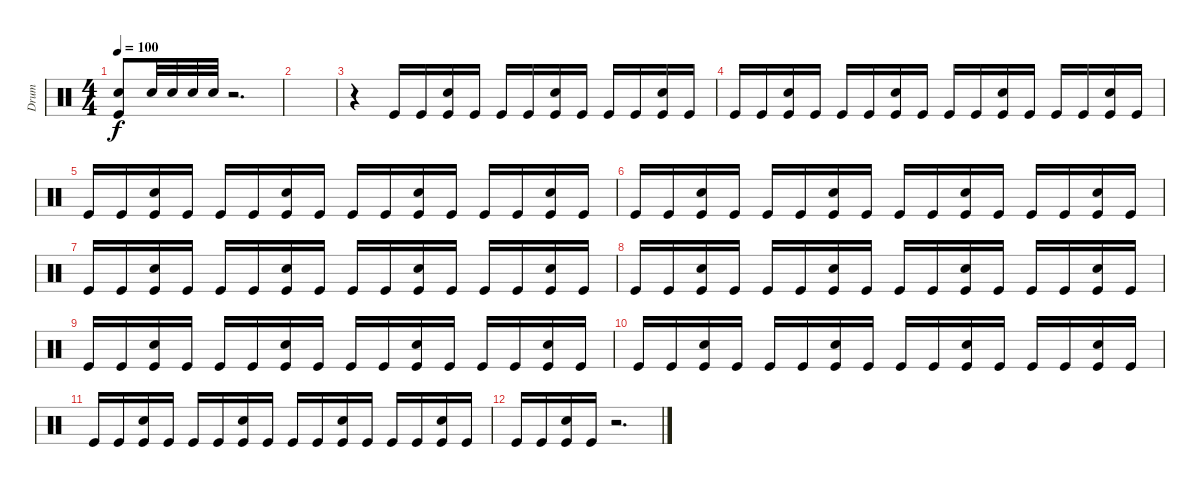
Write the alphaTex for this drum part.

\track ("Drum" "Drum") {instrument percussion}
\staff {score}
\articulation defaults
\ts (4 4)
\tempo 100
\clef neutral
\ks c
("Snare (hit) 2" "Kick (hit)").8{dy f} "Snare (hit) 2".32 "Snare (hit) 2".32 "Snare (hit) 2".32 "Snare (hit) 2".32 r.2{d} |
|
r.4 "Kick (hit)".16 "Kick (hit)".16 ("Snare (hit) 2" "Kick (hit)").16 "Kick (hit)".16 "Kick (hit)".16 "Kick (hit)".16 ("Snare (hit) 2" "Kick (hit)").16 "Kick (hit)".16 "Kick (hit)".16 "Kick (hit)".16 ("Snare (hit) 2" "Kick (hit)").16 "Kick (hit)".16 |
"Kick (hit)".16 "Kick (hit)".16 ("Snare (hit) 2" "Kick (hit)").16 "Kick (hit)".16 "Kick (hit)".16 "Kick (hit)".16 ("Snare (hit) 2" "Kick (hit)").16 "Kick (hit)".16 "Kick (hit)".16 "Kick (hit)".16 ("Snare (hit) 2" "Kick (hit)").16 "Kick (hit)".16 "Kick (hit)".16 "Kick (hit)".16 ("Snare (hit) 2" "Kick (hit)").16 "Kick (hit)".16 |
"Kick (hit)".16 "Kick (hit)".16 ("Snare (hit) 2" "Kick (hit)").16 "Kick (hit)".16 "Kick (hit)".16 "Kick (hit)".16 ("Snare (hit) 2" "Kick (hit)").16 "Kick (hit)".16 "Kick (hit)".16 "Kick (hit)".16 ("Snare (hit) 2" "Kick (hit)").16 "Kick (hit)".16 "Kick (hit)".16 "Kick (hit)".16 ("Snare (hit) 2" "Kick (hit)").16 "Kick (hit)".16 |
"Kick (hit)".16 "Kick (hit)".16 ("Snare (hit) 2" "Kick (hit)").16 "Kick (hit)".16 "Kick (hit)".16 "Kick (hit)".16 ("Snare (hit) 2" "Kick (hit)").16 "Kick (hit)".16 "Kick (hit)".16 "Kick (hit)".16 ("Snare (hit) 2" "Kick (hit)").16 "Kick (hit)".16 "Kick (hit)".16 "Kick (hit)".16 ("Snare (hit) 2" "Kick (hit)").16 "Kick (hit)".16 |
"Kick (hit)".16 "Kick (hit)".16 ("Snare (hit) 2" "Kick (hit)").16 "Kick (hit)".16 "Kick (hit)".16 "Kick (hit)".16 ("Snare (hit) 2" "Kick (hit)").16 "Kick (hit)".16 "Kick (hit)".16 "Kick (hit)".16 ("Snare (hit) 2" "Kick (hit)").16 "Kick (hit)".16 "Kick (hit)".16 "Kick (hit)".16 ("Snare (hit) 2" "Kick (hit)").16 "Kick (hit)".16 |
"Kick (hit)".16 "Kick (hit)".16 ("Snare (hit) 2" "Kick (hit)").16 "Kick (hit)".16 "Kick (hit)".16 "Kick (hit)".16 ("Snare (hit) 2" "Kick (hit)").16 "Kick (hit)".16 "Kick (hit)".16 "Kick (hit)".16 ("Snare (hit) 2" "Kick (hit)").16 "Kick (hit)".16 "Kick (hit)".16 "Kick (hit)".16 ("Snare (hit) 2" "Kick (hit)").16 "Kick (hit)".16 |
"Kick (hit)".16 "Kick (hit)".16 ("Snare (hit) 2" "Kick (hit)").16 "Kick (hit)".16 "Kick (hit)".16 "Kick (hit)".16 ("Snare (hit) 2" "Kick (hit)").16 "Kick (hit)".16 "Kick (hit)".16 "Kick (hit)".16 ("Snare (hit) 2" "Kick (hit)").16 "Kick (hit)".16 "Kick (hit)".16 "Kick (hit)".16 ("Snare (hit) 2" "Kick (hit)").16 "Kick (hit)".16 |
"Kick (hit)".16 "Kick (hit)".16 ("Snare (hit) 2" "Kick (hit)").16 "Kick (hit)".16 "Kick (hit)".16 "Kick (hit)".16 ("Snare (hit) 2" "Kick (hit)").16 "Kick (hit)".16 "Kick (hit)".16 "Kick (hit)".16 ("Snare (hit) 2" "Kick (hit)").16 "Kick (hit)".16 "Kick (hit)".16 "Kick (hit)".16 ("Snare (hit) 2" "Kick (hit)").16 "Kick (hit)".16 |
"Kick (hit)".16 "Kick (hit)".16 ("Snare (hit) 2" "Kick (hit)").16 "Kick (hit)".16 "Kick (hit)".16 "Kick (hit)".16 ("Snare (hit) 2" "Kick (hit)").16 "Kick (hit)".16 "Kick (hit)".16 "Kick (hit)".16 ("Snare (hit) 2" "Kick (hit)").16 "Kick (hit)".16 "Kick (hit)".16 "Kick (hit)".16 ("Snare (hit) 2" "Kick (hit)").16 "Kick (hit)".16 |
"Kick (hit)".16 "Kick (hit)".16 ("Snare (hit) 2" "Kick (hit)").16 "Kick (hit)".16 r.2{d}
